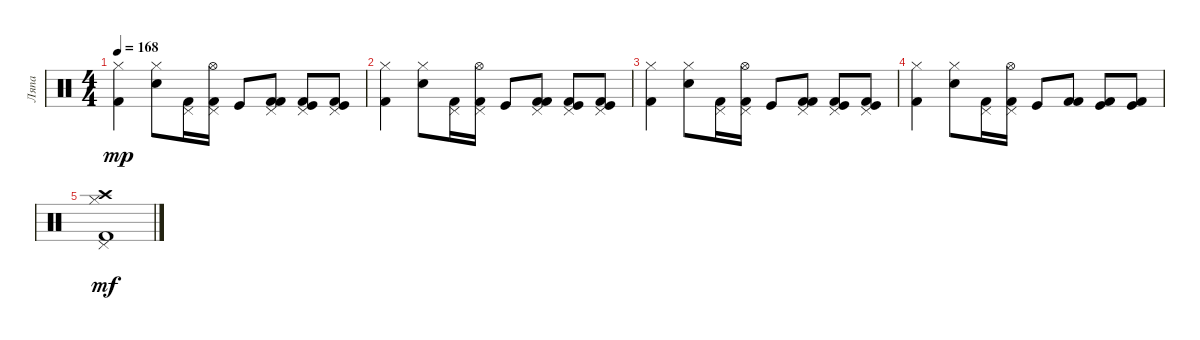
\track ("Ляпа" "Ляпа") {instrument percussion}
\staff {score}
\articulation defaults
\ts (4 4)
\tempo 168
\clef neutral
\ks c
("Kick (hit) 2" "Hi-Hat (closed)").4{dy mp} ("Electric Snare (hit)" "Hi-Hat (closed)").8 ("Kick (hit) 2" "Pedal Hi-Hat (hit)").16 ("Kick (hit) 2" "Hi-Hat (open)" "Pedal Hi-Hat (hit)").16 "Kick (hit)".8 ("Kick (hit) 2" "Kick (hit) 2" "Pedal Hi-Hat (hit)").8 ("Kick (hit) 2" "Kick (hit)" "Pedal Hi-Hat (hit)").8 ("Kick (hit)" "Kick (hit) 2" "Pedal Hi-Hat (hit)").8 |
("Kick (hit) 2" "Hi-Hat (closed)").4 ("Electric Snare (hit)" "Hi-Hat (closed)").8 ("Kick (hit) 2" "Pedal Hi-Hat (hit)").16 ("Kick (hit) 2" "Hi-Hat (open)" "Pedal Hi-Hat (hit)").16 "Kick (hit)".8 ("Kick (hit) 2" "Kick (hit) 2" "Pedal Hi-Hat (hit)").8 ("Kick (hit) 2" "Kick (hit)" "Pedal Hi-Hat (hit)").8 ("Kick (hit)" "Kick (hit) 2" "Pedal Hi-Hat (hit)").8 |
("Kick (hit) 2" "Hi-Hat (closed)").4 ("Electric Snare (hit)" "Hi-Hat (closed)").8 ("Kick (hit) 2" "Pedal Hi-Hat (hit)").16 ("Kick (hit) 2" "Hi-Hat (open)" "Pedal Hi-Hat (hit)").16 "Kick (hit)".8 ("Kick (hit) 2" "Kick (hit) 2" "Pedal Hi-Hat (hit)").8 ("Kick (hit) 2" "Kick (hit)" "Pedal Hi-Hat (hit)").8 ("Kick (hit)" "Kick (hit) 2" "Pedal Hi-Hat (hit)").8 |
("Kick (hit) 2" "Hi-Hat (closed)").4 ("Electric Snare (hit)" "Hi-Hat (closed)").8 ("Kick (hit) 2" "Pedal Hi-Hat (hit)").16 ("Kick (hit) 2" "Hi-Hat (open)" "Pedal Hi-Hat (hit)").16 "Kick (hit)".8 ("Kick (hit) 2" "Kick (hit) 2").8 ("Kick (hit) 2" "Kick (hit)").8 ("Kick (hit)" "Kick (hit) 2").8 |
("Pedal Hi-Hat (hit)" "Crash high (hit)" "Hi-Hat (closed)" "Kick (hit) 2").1{dy mf}
